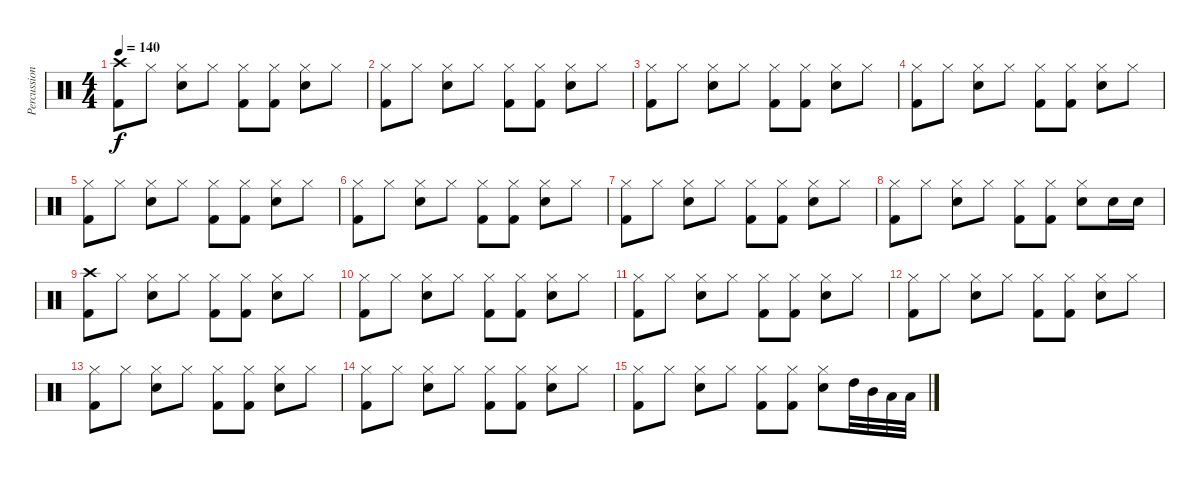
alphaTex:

\track ("Percussion" "Percussion") {instrument percussion}
\staff {score}
\articulation defaults
\ts (4 4)
\tempo 140
\clef neutral
\ks c
("Crash high (hit)" "Kick (hit) 2").8{dy f} "Hi-Hat (closed)".8 ("Hi-Hat (closed)" "Electric Snare (hit)").8 "Hi-Hat (closed)".8 ("Hi-Hat (closed)" "Kick (hit) 2").8 ("Hi-Hat (closed)" "Kick (hit) 2").8 ("Hi-Hat (closed)" "Electric Snare (hit)").8 "Hi-Hat (closed)".8 |
("Hi-Hat (closed)" "Kick (hit) 2").8 "Hi-Hat (closed)".8 ("Hi-Hat (closed)" "Electric Snare (hit)").8 "Hi-Hat (closed)".8 ("Hi-Hat (closed)" "Kick (hit) 2").8 ("Hi-Hat (closed)" "Kick (hit) 2").8 ("Hi-Hat (closed)" "Electric Snare (hit)").8 "Hi-Hat (closed)".8 |
("Hi-Hat (closed)" "Kick (hit) 2").8 "Hi-Hat (closed)".8 ("Hi-Hat (closed)" "Electric Snare (hit)").8 "Hi-Hat (closed)".8 ("Hi-Hat (closed)" "Kick (hit) 2").8 ("Hi-Hat (closed)" "Kick (hit) 2").8 ("Hi-Hat (closed)" "Electric Snare (hit)").8 "Hi-Hat (closed)".8 |
("Hi-Hat (closed)" "Kick (hit) 2").8 "Hi-Hat (closed)".8 ("Hi-Hat (closed)" "Electric Snare (hit)").8 "Hi-Hat (closed)".8 ("Hi-Hat (closed)" "Kick (hit) 2").8 ("Hi-Hat (closed)" "Kick (hit) 2").8 ("Hi-Hat (closed)" "Electric Snare (hit)").8 "Hi-Hat (closed)".8 |
("Hi-Hat (closed)" "Kick (hit) 2").8 "Hi-Hat (closed)".8 ("Hi-Hat (closed)" "Electric Snare (hit)").8 "Hi-Hat (closed)".8 ("Hi-Hat (closed)" "Kick (hit) 2").8 ("Hi-Hat (closed)" "Kick (hit) 2").8 ("Hi-Hat (closed)" "Electric Snare (hit)").8 "Hi-Hat (closed)".8 |
("Hi-Hat (closed)" "Kick (hit) 2").8 "Hi-Hat (closed)".8 ("Hi-Hat (closed)" "Electric Snare (hit)").8 "Hi-Hat (closed)".8 ("Hi-Hat (closed)" "Kick (hit) 2").8 ("Hi-Hat (closed)" "Kick (hit) 2").8 ("Hi-Hat (closed)" "Electric Snare (hit)").8 "Hi-Hat (closed)".8 |
("Hi-Hat (closed)" "Kick (hit) 2").8 "Hi-Hat (closed)".8 ("Hi-Hat (closed)" "Electric Snare (hit)").8 "Hi-Hat (closed)".8 ("Hi-Hat (closed)" "Kick (hit) 2").8 ("Hi-Hat (closed)" "Kick (hit) 2").8 ("Hi-Hat (closed)" "Electric Snare (hit)").8 "Hi-Hat (closed)".8 |
("Hi-Hat (closed)" "Kick (hit) 2").8 "Hi-Hat (closed)".8 ("Hi-Hat (closed)" "Electric Snare (hit)").8 "Hi-Hat (closed)".8 ("Hi-Hat (closed)" "Kick (hit) 2").8 ("Hi-Hat (closed)" "Kick (hit) 2").8 ("Hi-Hat (closed)" "Electric Snare (hit)").8 "Electric Snare (hit)".16 "Electric Snare (hit)".16 |
("Crash high (hit)" "Kick (hit) 2").8 "Hi-Hat (closed)".8 ("Hi-Hat (closed)" "Electric Snare (hit)").8 "Hi-Hat (closed)".8 ("Hi-Hat (closed)" "Kick (hit) 2").8 ("Hi-Hat (closed)" "Kick (hit) 2").8 ("Hi-Hat (closed)" "Electric Snare (hit)").8 "Hi-Hat (closed)".8 |
("Hi-Hat (closed)" "Kick (hit) 2").8 "Hi-Hat (closed)".8 ("Hi-Hat (closed)" "Electric Snare (hit)").8 "Hi-Hat (closed)".8 ("Hi-Hat (closed)" "Kick (hit) 2").8 ("Hi-Hat (closed)" "Kick (hit) 2").8 ("Hi-Hat (closed)" "Electric Snare (hit)").8 "Hi-Hat (closed)".8 |
("Hi-Hat (closed)" "Kick (hit) 2").8 "Hi-Hat (closed)".8 ("Hi-Hat (closed)" "Electric Snare (hit)").8 "Hi-Hat (closed)".8 ("Hi-Hat (closed)" "Kick (hit) 2").8 ("Hi-Hat (closed)" "Kick (hit) 2").8 ("Hi-Hat (closed)" "Electric Snare (hit)").8 "Hi-Hat (closed)".8 |
("Hi-Hat (closed)" "Kick (hit) 2").8 "Hi-Hat (closed)".8 ("Hi-Hat (closed)" "Electric Snare (hit)").8 "Hi-Hat (closed)".8 ("Hi-Hat (closed)" "Kick (hit) 2").8 ("Hi-Hat (closed)" "Kick (hit) 2").8 ("Hi-Hat (closed)" "Electric Snare (hit)").8 "Hi-Hat (closed)".8 |
("Hi-Hat (closed)" "Kick (hit) 2").8 "Hi-Hat (closed)".8 ("Hi-Hat (closed)" "Electric Snare (hit)").8 "Hi-Hat (closed)".8 ("Hi-Hat (closed)" "Kick (hit) 2").8 ("Hi-Hat (closed)" "Kick (hit) 2").8 ("Hi-Hat (closed)" "Electric Snare (hit)").8 "Hi-Hat (closed)".8 |
("Hi-Hat (closed)" "Kick (hit) 2").8 "Hi-Hat (closed)".8 ("Hi-Hat (closed)" "Electric Snare (hit)").8 "Hi-Hat (closed)".8 ("Hi-Hat (closed)" "Kick (hit) 2").8 ("Hi-Hat (closed)" "Kick (hit) 2").8 ("Hi-Hat (closed)" "Electric Snare (hit)").8 "Hi-Hat (closed)".8 |
("Hi-Hat (closed)" "Kick (hit) 2").8 "Hi-Hat (closed)".8 ("Hi-Hat (closed)" "Electric Snare (hit)").8 "Hi-Hat (closed)".8 ("Hi-Hat (closed)" "Kick (hit) 2").8 ("Hi-Hat (closed)" "Kick (hit) 2").8 ("Hi-Hat (closed)" "Electric Snare (hit)").8 "High Tom (hit)".32 "Mid Tom (hit)".32 "Low Tom (hit)".32 "Low Floor Tom (hit)".32
